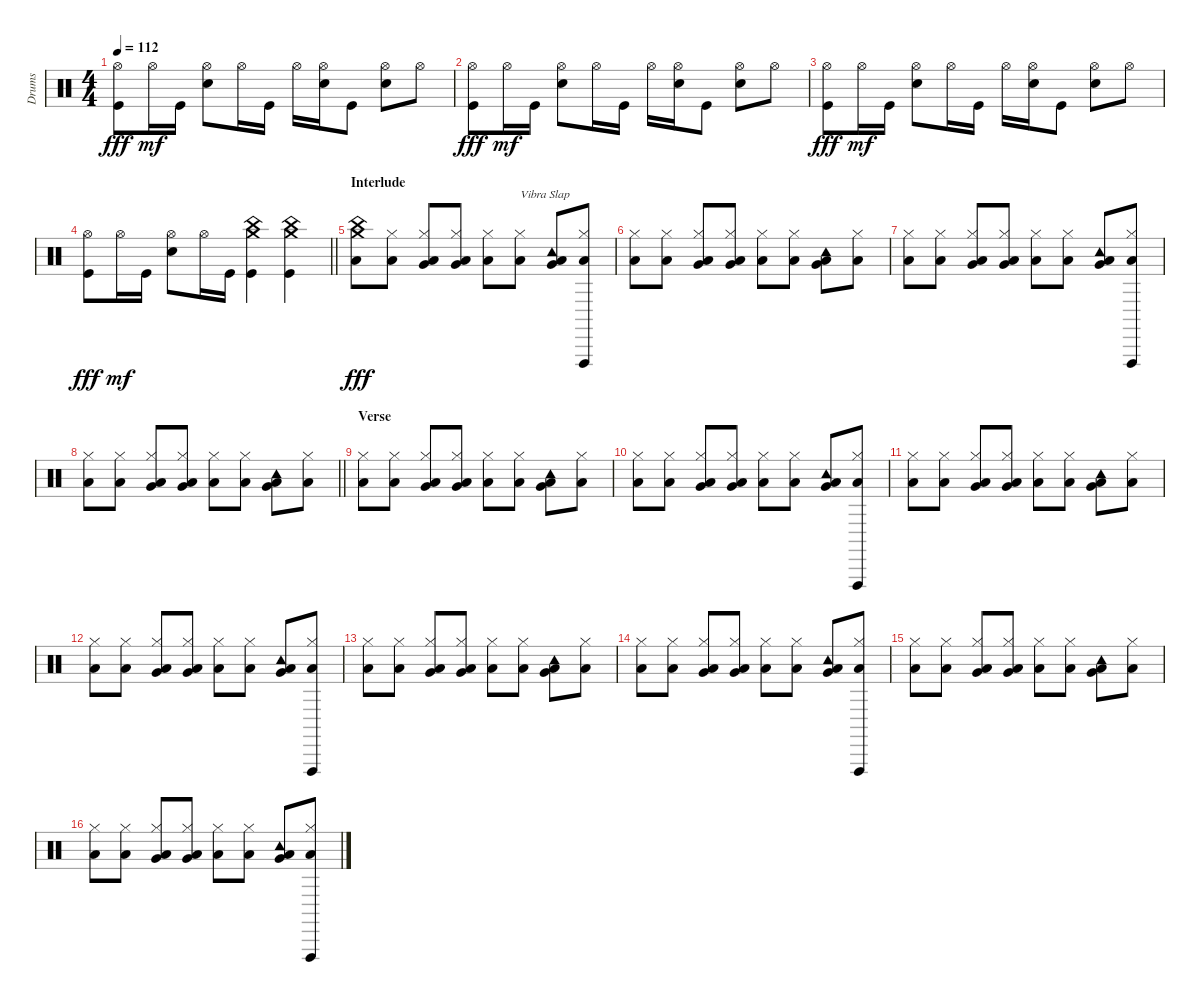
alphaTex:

\track ("Drums" "Drums") {instrument percussion}
\staff {score}
\articulation defaults
\ts (4 4)
\tempo 112
\clef neutral
\ks c
("Hi-Hat (open)" "Kick (hit)").8{dy fff} "Hi-Hat (open)".16{dy mf} "Kick (hit)".16 ("Hi-Hat (open)" "Electric Snare (hit)").8 "Hi-Hat (open)".16 "Kick (hit)".16 "Hi-Hat (open)".16 ("Hi-Hat (open)" "Electric Snare (hit)").16 "Kick (hit)".8 ("Hi-Hat (open)" "Electric Snare (hit)").8 "Hi-Hat (open)".8 |
("Hi-Hat (open)" "Kick (hit)").8{dy fff} "Hi-Hat (open)".16{dy mf} "Kick (hit)".16 ("Hi-Hat (open)" "Electric Snare (hit)").8 "Hi-Hat (open)".16 "Kick (hit)".16 "Hi-Hat (open)".16 ("Hi-Hat (open)" "Electric Snare (hit)").16 "Kick (hit)".8 ("Hi-Hat (open)" "Electric Snare (hit)").8 "Hi-Hat (open)".8 |
("Hi-Hat (open)" "Kick (hit)").8{dy fff} "Hi-Hat (open)".16{dy mf} "Kick (hit)".16 ("Hi-Hat (open)" "Electric Snare (hit)").8 "Hi-Hat (open)".16 "Kick (hit)".16 "Hi-Hat (open)".16 ("Hi-Hat (open)" "Electric Snare (hit)").16 "Kick (hit)".8 ("Hi-Hat (open)" "Electric Snare (hit)").8 "Hi-Hat (open)".8 |
\barLineRight lightlight
("Hi-Hat (open)" "Kick (hit)").8{dy fff} "Hi-Hat (open)".16{dy mf} "Kick (hit)".16 ("Hi-Hat (open)" "Electric Snare (hit)").8 "Hi-Hat (open)".16 "Kick (hit)".16 ("China (hit)" "Crash medium (hit)" "Kick (hit)").4 ("China (hit)" "Crash medium (hit)" "Kick (hit)").4 |
\section ("" "Interlude")
("China (hit)" "Crash medium (hit)" "Low Floor Tom (hit)").8{dy fff} ("Hi-Hat (closed)" "Low Floor Tom (hit)").8 ("Hi-Hat (closed)" "Very Low Tom (hit)" "Low Floor Tom (hit)").8 ("Hi-Hat (closed)" "Very Low Tom (hit)" "Low Floor Tom (hit)").8 ("Hi-Hat (closed)" "Low Floor Tom (hit)").8 ("Hi-Hat (closed)" "Low Floor Tom (hit)").8{txt "Vibra Slap"} ("Tambourine (hit)" "Very Low Tom (hit)" "Low Floor Tom (hit)").8 ("Hi-Hat (closed)" "Vibraslap (hit)" "Low Floor Tom (hit)").8 |
("Hi-Hat (closed)" "Low Floor Tom (hit)").8 ("Hi-Hat (closed)" "Low Floor Tom (hit)").8 ("Hi-Hat (closed)" "Very Low Tom (hit)" "Low Floor Tom (hit)").8 ("Hi-Hat (closed)" "Very Low Tom (hit)" "Low Floor Tom (hit)").8 ("Hi-Hat (closed)" "Low Floor Tom (hit)").8 ("Hi-Hat (closed)" "Low Floor Tom (hit)").8 ("Tambourine (hit)" "Very Low Tom (hit)" "Low Floor Tom (hit)").8 ("Hi-Hat (closed)" "Low Floor Tom (hit)").8 |
("Hi-Hat (closed)" "Low Floor Tom (hit)").8 ("Hi-Hat (closed)" "Low Floor Tom (hit)").8 ("Hi-Hat (closed)" "Very Low Tom (hit)" "Low Floor Tom (hit)").8 ("Hi-Hat (closed)" "Very Low Tom (hit)" "Low Floor Tom (hit)").8 ("Hi-Hat (closed)" "Low Floor Tom (hit)").8 ("Hi-Hat (closed)" "Low Floor Tom (hit)").8 ("Tambourine (hit)" "Very Low Tom (hit)" "Low Floor Tom (hit)").8 ("Hi-Hat (closed)" "Vibraslap (hit)" "Low Floor Tom (hit)").8 |
\barLineRight lightlight
("Hi-Hat (closed)" "Low Floor Tom (hit)").8 ("Hi-Hat (closed)" "Low Floor Tom (hit)").8 ("Hi-Hat (closed)" "Very Low Tom (hit)" "Low Floor Tom (hit)").8 ("Hi-Hat (closed)" "Very Low Tom (hit)" "Low Floor Tom (hit)").8 ("Hi-Hat (closed)" "Low Floor Tom (hit)").8 ("Hi-Hat (closed)" "Low Floor Tom (hit)").8 ("Tambourine (hit)" "Very Low Tom (hit)" "Low Floor Tom (hit)").8 ("Hi-Hat (closed)" "Low Floor Tom (hit)").8 |
\section ("" "Verse")
("Hi-Hat (closed)" "Low Floor Tom (hit)").8 ("Hi-Hat (closed)" "Low Floor Tom (hit)").8 ("Hi-Hat (closed)" "Very Low Tom (hit)" "Low Floor Tom (hit)").8 ("Hi-Hat (closed)" "Very Low Tom (hit)" "Low Floor Tom (hit)").8 ("Hi-Hat (closed)" "Low Floor Tom (hit)").8 ("Hi-Hat (closed)" "Low Floor Tom (hit)").8 ("Tambourine (hit)" "Very Low Tom (hit)" "Low Floor Tom (hit)").8 ("Hi-Hat (closed)" "Low Floor Tom (hit)").8 |
("Hi-Hat (closed)" "Low Floor Tom (hit)").8 ("Hi-Hat (closed)" "Low Floor Tom (hit)").8 ("Hi-Hat (closed)" "Very Low Tom (hit)" "Low Floor Tom (hit)").8 ("Hi-Hat (closed)" "Very Low Tom (hit)" "Low Floor Tom (hit)").8 ("Hi-Hat (closed)" "Low Floor Tom (hit)").8 ("Hi-Hat (closed)" "Low Floor Tom (hit)").8 ("Tambourine (hit)" "Very Low Tom (hit)" "Low Floor Tom (hit)").8 ("Hi-Hat (closed)" "Vibraslap (hit)" "Low Floor Tom (hit)").8 |
("Hi-Hat (closed)" "Low Floor Tom (hit)").8 ("Hi-Hat (closed)" "Low Floor Tom (hit)").8 ("Hi-Hat (closed)" "Very Low Tom (hit)" "Low Floor Tom (hit)").8 ("Hi-Hat (closed)" "Very Low Tom (hit)" "Low Floor Tom (hit)").8 ("Hi-Hat (closed)" "Low Floor Tom (hit)").8 ("Hi-Hat (closed)" "Low Floor Tom (hit)").8 ("Tambourine (hit)" "Very Low Tom (hit)" "Low Floor Tom (hit)").8 ("Hi-Hat (closed)" "Low Floor Tom (hit)").8 |
("Hi-Hat (closed)" "Low Floor Tom (hit)").8 ("Hi-Hat (closed)" "Low Floor Tom (hit)").8 ("Hi-Hat (closed)" "Very Low Tom (hit)" "Low Floor Tom (hit)").8 ("Hi-Hat (closed)" "Very Low Tom (hit)" "Low Floor Tom (hit)").8 ("Hi-Hat (closed)" "Low Floor Tom (hit)").8 ("Hi-Hat (closed)" "Low Floor Tom (hit)").8 ("Tambourine (hit)" "Very Low Tom (hit)" "Low Floor Tom (hit)").8 ("Hi-Hat (closed)" "Vibraslap (hit)" "Low Floor Tom (hit)").8 |
("Hi-Hat (closed)" "Low Floor Tom (hit)").8 ("Hi-Hat (closed)" "Low Floor Tom (hit)").8 ("Hi-Hat (closed)" "Very Low Tom (hit)" "Low Floor Tom (hit)").8 ("Hi-Hat (closed)" "Very Low Tom (hit)" "Low Floor Tom (hit)").8 ("Hi-Hat (closed)" "Low Floor Tom (hit)").8 ("Hi-Hat (closed)" "Low Floor Tom (hit)").8 ("Tambourine (hit)" "Very Low Tom (hit)" "Low Floor Tom (hit)").8 ("Hi-Hat (closed)" "Low Floor Tom (hit)").8 |
("Hi-Hat (closed)" "Low Floor Tom (hit)").8 ("Hi-Hat (closed)" "Low Floor Tom (hit)").8 ("Hi-Hat (closed)" "Very Low Tom (hit)" "Low Floor Tom (hit)").8 ("Hi-Hat (closed)" "Very Low Tom (hit)" "Low Floor Tom (hit)").8 ("Hi-Hat (closed)" "Low Floor Tom (hit)").8 ("Hi-Hat (closed)" "Low Floor Tom (hit)").8 ("Tambourine (hit)" "Very Low Tom (hit)" "Low Floor Tom (hit)").8 ("Hi-Hat (closed)" "Vibraslap (hit)" "Low Floor Tom (hit)").8 |
("Hi-Hat (closed)" "Low Floor Tom (hit)").8 ("Hi-Hat (closed)" "Low Floor Tom (hit)").8 ("Hi-Hat (closed)" "Very Low Tom (hit)" "Low Floor Tom (hit)").8 ("Hi-Hat (closed)" "Very Low Tom (hit)" "Low Floor Tom (hit)").8 ("Hi-Hat (closed)" "Low Floor Tom (hit)").8 ("Hi-Hat (closed)" "Low Floor Tom (hit)").8 ("Tambourine (hit)" "Very Low Tom (hit)" "Low Floor Tom (hit)").8 ("Hi-Hat (closed)" "Low Floor Tom (hit)").8 |
("Hi-Hat (closed)" "Low Floor Tom (hit)").8 ("Hi-Hat (closed)" "Low Floor Tom (hit)").8 ("Hi-Hat (closed)" "Very Low Tom (hit)" "Low Floor Tom (hit)").8 ("Hi-Hat (closed)" "Very Low Tom (hit)" "Low Floor Tom (hit)").8 ("Hi-Hat (closed)" "Low Floor Tom (hit)").8 ("Hi-Hat (closed)" "Low Floor Tom (hit)").8 ("Tambourine (hit)" "Very Low Tom (hit)" "Low Floor Tom (hit)").8 ("Hi-Hat (closed)" "Vibraslap (hit)" "Low Floor Tom (hit)").8
